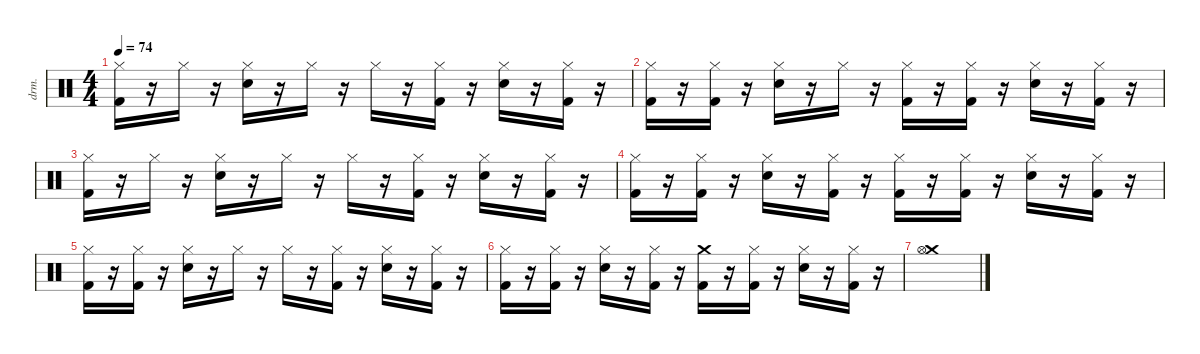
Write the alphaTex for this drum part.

\defaultSystemsLayout 4
\hideDynamics
\bracketExtendMode nobrackets
\track ("Dave Grohl" "drm.") {instrument percussion}
\staff {score}
\articulation defaults
\ts (4 4)
\tempo 74
\clef neutral
\ks c
("Hi-Hat (closed)" "Kick (hit) 2").16{dy f} r.16 "Hi-Hat (closed)".16 r.16 ("Hi-Hat (closed)" "Snare (hit) 2").16 r.16 "Hi-Hat (closed)".16 r.16 "Hi-Hat (closed)".16 r.16 ("Hi-Hat (closed)" "Kick (hit) 2").16 r.16 ("Hi-Hat (closed)" "Snare (hit) 2").16 r.16 ("Hi-Hat (closed)" "Kick (hit) 2").16 r.16 |
("Hi-Hat (closed)" "Kick (hit) 2").16 r.16 ("Hi-Hat (closed)" "Kick (hit) 2").16 r.16 ("Hi-Hat (closed)" "Snare (hit) 2").16 r.16 "Hi-Hat (closed)".16 r.16 ("Hi-Hat (closed)" "Kick (hit) 2").16 r.16 ("Hi-Hat (closed)" "Kick (hit) 2").16 r.16 ("Hi-Hat (closed)" "Snare (hit) 2").16 r.16 ("Hi-Hat (closed)" "Kick (hit) 2").16 r.16 |
("Hi-Hat (closed)" "Kick (hit) 2").16 r.16 "Hi-Hat (closed)".16 r.16 ("Hi-Hat (closed)" "Snare (hit) 2").16 r.16 "Hi-Hat (closed)".16 r.16 "Hi-Hat (closed)".16 r.16 ("Hi-Hat (closed)" "Kick (hit) 2").16 r.16 ("Hi-Hat (closed)" "Snare (hit) 2").16 r.16 ("Hi-Hat (closed)" "Kick (hit) 2").16 r.16 |
("Hi-Hat (closed)" "Kick (hit) 2").16 r.16 ("Hi-Hat (closed)" "Kick (hit) 2").16 r.16 ("Hi-Hat (closed)" "Snare (hit) 2").16 r.16 ("Hi-Hat (closed)" "Kick (hit) 2").16 r.16 ("Hi-Hat (closed)" "Kick (hit) 2").16 r.16 ("Hi-Hat (closed)" "Kick (hit) 2").16 r.16 ("Hi-Hat (closed)" "Snare (hit) 2").16 r.16 ("Hi-Hat (closed)" "Kick (hit) 2").16 r.16 |
("Hi-Hat (closed)" "Kick (hit) 2").16 r.16 ("Hi-Hat (closed)" "Kick (hit) 2").16 r.16 ("Hi-Hat (closed)" "Snare (hit) 2").16 r.16 "Hi-Hat (closed)".16 r.16 "Hi-Hat (closed)".16 r.16 ("Hi-Hat (closed)" "Kick (hit) 2").16 r.16 ("Hi-Hat (closed)" "Snare (hit) 2").16 r.16 ("Hi-Hat (closed)" "Kick (hit) 2").16 r.16 |
("Hi-Hat (closed)" "Kick (hit) 2").16 r.16 ("Hi-Hat (closed)" "Kick (hit) 2").16 r.16 ("Hi-Hat (closed)" "Snare (hit) 2").16 r.16 ("Hi-Hat (closed)" "Kick (hit) 2").16 r.16 ("Crash medium (hit)" "Kick (hit) 2").16 r.16 ("Hi-Hat (closed)" "Kick (hit) 2").16 r.16 ("Hi-Hat (closed)" "Snare (hit) 2").16 r.16 ("Hi-Hat (closed)" "Kick (hit) 2").16 r.16 |
("Crash medium (hit)" "Hi-Hat (open)").1
